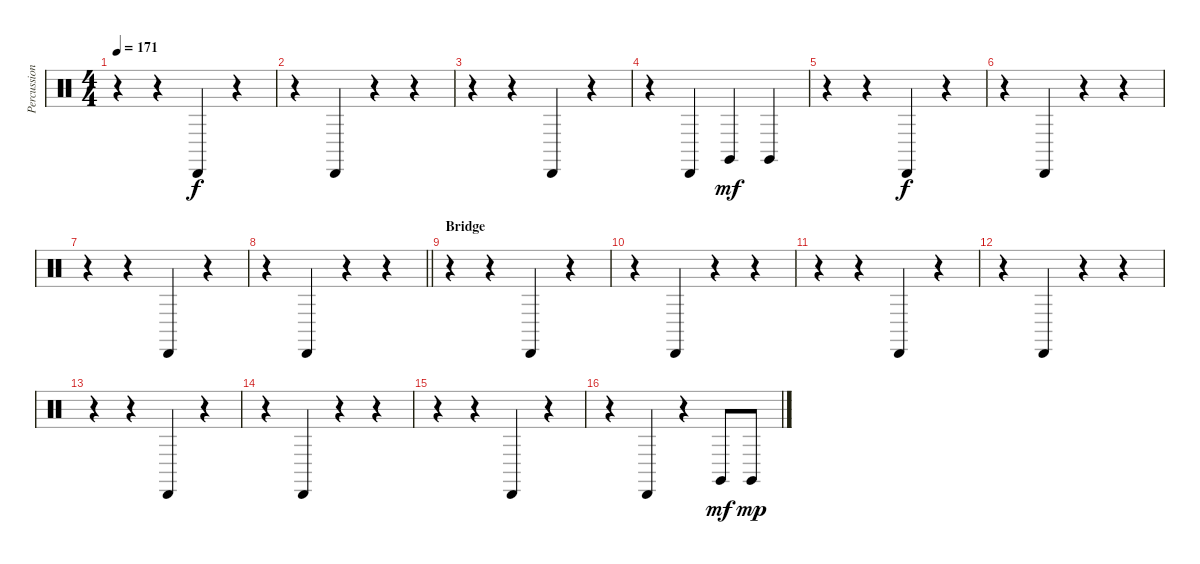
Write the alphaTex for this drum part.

\track ("Percussion" "Percussion") {instrument percussion}
\staff {score}
\articulation defaults
\ts (4 4)
\tempo 171
\clef neutral
\ks c
r.4{dy mf} r.4 "Cabasa (hit)".4{dy f} r.4 |
r.4 "Cabasa (hit)".4 r.4 r.4 |
r.4 r.4 "Cabasa (hit)".4 r.4 |
r.4 "Cabasa (hit)".4 "Claves (hit)".4{dy mf} "Claves (hit)".4 |
r.4 r.4 "Cabasa (hit)".4{dy f} r.4 |
r.4 "Cabasa (hit)".4 r.4 r.4 |
r.4 r.4 "Cabasa (hit)".4 r.4 |
\barLineRight lightlight
r.4 "Cabasa (hit)".4 r.4 r.4 |
\section ("" "Bridge")
r.4 r.4 "Cabasa (hit)".4 r.4 |
r.4 "Cabasa (hit)".4 r.4 r.4 |
r.4 r.4 "Cabasa (hit)".4 r.4 |
r.4 "Cabasa (hit)".4 r.4 r.4 |
r.4 r.4 "Cabasa (hit)".4 r.4 |
r.4 "Cabasa (hit)".4 r.4 r.4 |
r.4 r.4 "Cabasa (hit)".4 r.4 |
r.4 "Cabasa (hit)".4 r.4 "Claves (hit)".8{dy mf} "Claves (hit)".8{dy mp}
